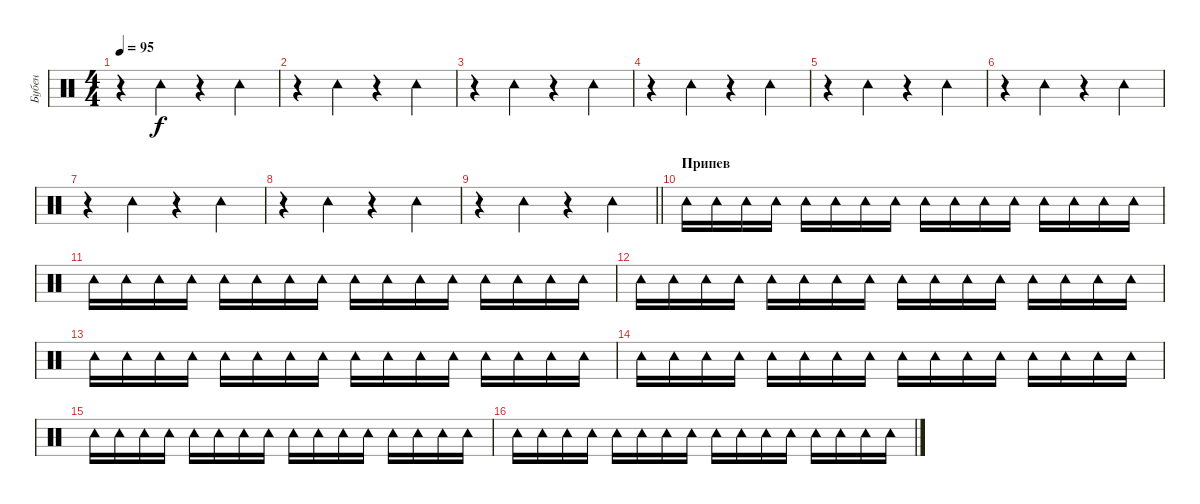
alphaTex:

\track ("Бубен" "Бубен") {instrument percussion}
\staff {score}
\articulation defaults
\ts (4 4)
\tempo 95
\clef neutral
\ks c
r.4{dy f} "Tambourine (hit)".4 r.4 "Tambourine (hit)".4 |
r.4 "Tambourine (hit)".4 r.4 "Tambourine (hit)".4 |
r.4 "Tambourine (hit)".4 r.4 "Tambourine (hit)".4 |
r.4 "Tambourine (hit)".4 r.4 "Tambourine (hit)".4 |
r.4 "Tambourine (hit)".4 r.4 "Tambourine (hit)".4 |
r.4 "Tambourine (hit)".4 r.4 "Tambourine (hit)".4 |
r.4 "Tambourine (hit)".4 r.4 "Tambourine (hit)".4 |
r.4 "Tambourine (hit)".4 r.4 "Tambourine (hit)".4 |
\barLineRight lightlight
r.4 "Tambourine (hit)".4 r.4 "Tambourine (hit)".4 |
\section ("" "Припев")
"Tambourine (hit)".16{volume 5} "Tambourine (hit)".16 "Tambourine (hit)".16 "Tambourine (hit)".16 "Tambourine (hit)".16 "Tambourine (hit)".16 "Tambourine (hit)".16 "Tambourine (hit)".16 "Tambourine (hit)".16 "Tambourine (hit)".16 "Tambourine (hit)".16 "Tambourine (hit)".16 "Tambourine (hit)".16 "Tambourine (hit)".16 "Tambourine (hit)".16 "Tambourine (hit)".16 |
"Tambourine (hit)".16 "Tambourine (hit)".16 "Tambourine (hit)".16 "Tambourine (hit)".16 "Tambourine (hit)".16 "Tambourine (hit)".16 "Tambourine (hit)".16 "Tambourine (hit)".16 "Tambourine (hit)".16 "Tambourine (hit)".16 "Tambourine (hit)".16 "Tambourine (hit)".16 "Tambourine (hit)".16 "Tambourine (hit)".16 "Tambourine (hit)".16 "Tambourine (hit)".16 |
"Tambourine (hit)".16 "Tambourine (hit)".16 "Tambourine (hit)".16 "Tambourine (hit)".16 "Tambourine (hit)".16 "Tambourine (hit)".16 "Tambourine (hit)".16 "Tambourine (hit)".16 "Tambourine (hit)".16 "Tambourine (hit)".16 "Tambourine (hit)".16 "Tambourine (hit)".16 "Tambourine (hit)".16 "Tambourine (hit)".16 "Tambourine (hit)".16 "Tambourine (hit)".16 |
"Tambourine (hit)".16 "Tambourine (hit)".16 "Tambourine (hit)".16 "Tambourine (hit)".16 "Tambourine (hit)".16 "Tambourine (hit)".16 "Tambourine (hit)".16 "Tambourine (hit)".16 "Tambourine (hit)".16 "Tambourine (hit)".16 "Tambourine (hit)".16 "Tambourine (hit)".16 "Tambourine (hit)".16 "Tambourine (hit)".16 "Tambourine (hit)".16 "Tambourine (hit)".16 |
"Tambourine (hit)".16 "Tambourine (hit)".16 "Tambourine (hit)".16 "Tambourine (hit)".16 "Tambourine (hit)".16 "Tambourine (hit)".16 "Tambourine (hit)".16 "Tambourine (hit)".16 "Tambourine (hit)".16 "Tambourine (hit)".16 "Tambourine (hit)".16 "Tambourine (hit)".16 "Tambourine (hit)".16 "Tambourine (hit)".16 "Tambourine (hit)".16 "Tambourine (hit)".16 |
"Tambourine (hit)".16 "Tambourine (hit)".16 "Tambourine (hit)".16 "Tambourine (hit)".16 "Tambourine (hit)".16 "Tambourine (hit)".16 "Tambourine (hit)".16 "Tambourine (hit)".16 "Tambourine (hit)".16 "Tambourine (hit)".16 "Tambourine (hit)".16 "Tambourine (hit)".16 "Tambourine (hit)".16 "Tambourine (hit)".16 "Tambourine (hit)".16 "Tambourine (hit)".16 |
"Tambourine (hit)".16 "Tambourine (hit)".16 "Tambourine (hit)".16 "Tambourine (hit)".16 "Tambourine (hit)".16 "Tambourine (hit)".16 "Tambourine (hit)".16 "Tambourine (hit)".16 "Tambourine (hit)".16 "Tambourine (hit)".16 "Tambourine (hit)".16 "Tambourine (hit)".16 "Tambourine (hit)".16 "Tambourine (hit)".16 "Tambourine (hit)".16 "Tambourine (hit)".16
